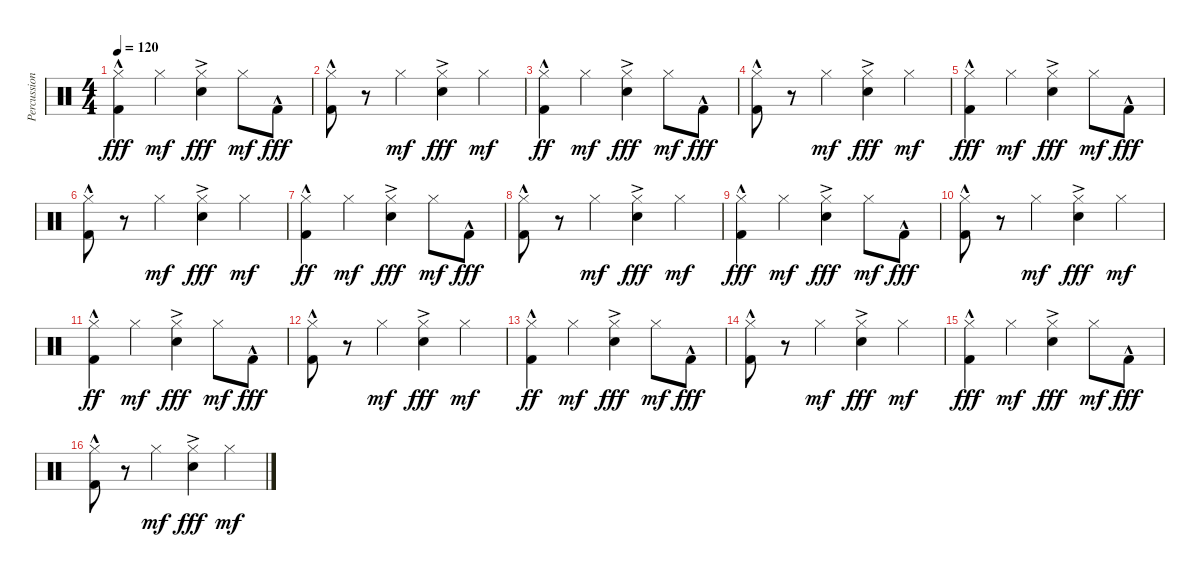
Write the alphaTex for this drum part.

\track ("Percussion" "Percussion") {instrument percussion}
\staff {score}
\articulation defaults
\ts (4 4)
\tempo 120
\clef neutral
\ks c
("Hi-Hat (closed)" "Kick (hit) 2"{hac}).4{dy fff} "Hi-Hat (closed)".4{dy mf} ("Hi-Hat (closed)" "Electric Snare (hit)"{ac}).4{dy fff} "Hi-Hat (closed)".8{dy mf} "Kick (hit) 2"{hac}.8{dy fff} |
("Hi-Hat (closed)" "Kick (hit) 2"{hac}).8 r.8 "Hi-Hat (closed)".4{dy mf} ("Hi-Hat (closed)" "Electric Snare (hit)"{ac}).4{dy fff} "Hi-Hat (closed)".4{dy mf} |
("Hi-Hat (closed)" "Kick (hit) 2"{hac}).4{dy ff} "Hi-Hat (closed)".4{dy mf} ("Hi-Hat (closed)" "Electric Snare (hit)"{ac}).4{dy fff} "Hi-Hat (closed)".8{dy mf} "Kick (hit) 2"{hac}.8{dy fff} |
("Hi-Hat (closed)" "Kick (hit) 2"{hac}).8 r.8 "Hi-Hat (closed)".4{dy mf} ("Hi-Hat (closed)" "Electric Snare (hit)"{ac}).4{dy fff} "Hi-Hat (closed)".4{dy mf} |
("Hi-Hat (closed)" "Kick (hit) 2"{hac}).4{dy fff} "Hi-Hat (closed)".4{dy mf} ("Hi-Hat (closed)" "Electric Snare (hit)"{ac}).4{dy fff} "Hi-Hat (closed)".8{dy mf} "Kick (hit) 2"{hac}.8{dy fff} |
("Hi-Hat (closed)" "Kick (hit) 2"{hac}).8 r.8 "Hi-Hat (closed)".4{dy mf} ("Hi-Hat (closed)" "Electric Snare (hit)"{ac}).4{dy fff} "Hi-Hat (closed)".4{dy mf} |
("Hi-Hat (closed)" "Kick (hit) 2"{hac}).4{dy ff} "Hi-Hat (closed)".4{dy mf} ("Hi-Hat (closed)" "Electric Snare (hit)"{ac}).4{dy fff} "Hi-Hat (closed)".8{dy mf} "Kick (hit) 2"{hac}.8{dy fff} |
("Hi-Hat (closed)" "Kick (hit) 2"{hac}).8 r.8 "Hi-Hat (closed)".4{dy mf} ("Hi-Hat (closed)" "Electric Snare (hit)"{ac}).4{dy fff} "Hi-Hat (closed)".4{dy mf} |
("Hi-Hat (closed)" "Kick (hit) 2"{hac}).4{dy fff} "Hi-Hat (closed)".4{dy mf} ("Hi-Hat (closed)" "Electric Snare (hit)"{ac}).4{dy fff} "Hi-Hat (closed)".8{dy mf} "Kick (hit) 2"{hac}.8{dy fff} |
("Hi-Hat (closed)" "Kick (hit) 2"{hac}).8 r.8 "Hi-Hat (closed)".4{dy mf} ("Hi-Hat (closed)" "Electric Snare (hit)"{ac}).4{dy fff} "Hi-Hat (closed)".4{dy mf} |
("Hi-Hat (closed)" "Kick (hit) 2"{hac}).4{dy ff} "Hi-Hat (closed)".4{dy mf} ("Hi-Hat (closed)" "Electric Snare (hit)"{ac}).4{dy fff} "Hi-Hat (closed)".8{dy mf} "Kick (hit) 2"{hac}.8{dy fff} |
("Hi-Hat (closed)" "Kick (hit) 2"{hac}).8 r.8 "Hi-Hat (closed)".4{dy mf} ("Hi-Hat (closed)" "Electric Snare (hit)"{ac}).4{dy fff} "Hi-Hat (closed)".4{dy mf} |
("Hi-Hat (closed)" "Kick (hit) 2"{hac}).4{dy ff} "Hi-Hat (closed)".4{dy mf} ("Hi-Hat (closed)" "Electric Snare (hit)"{ac}).4{dy fff} "Hi-Hat (closed)".8{dy mf} "Kick (hit) 2"{hac}.8{dy fff} |
("Hi-Hat (closed)" "Kick (hit) 2"{hac}).8 r.8 "Hi-Hat (closed)".4{dy mf} ("Hi-Hat (closed)" "Electric Snare (hit)"{ac}).4{dy fff} "Hi-Hat (closed)".4{dy mf} |
("Hi-Hat (closed)" "Kick (hit) 2"{hac}).4{dy fff} "Hi-Hat (closed)".4{dy mf} ("Hi-Hat (closed)" "Electric Snare (hit)"{ac}).4{dy fff} "Hi-Hat (closed)".8{dy mf} "Kick (hit) 2"{hac}.8{dy fff} |
("Hi-Hat (closed)" "Kick (hit) 2"{hac}).8 r.8 "Hi-Hat (closed)".4{dy mf} ("Hi-Hat (closed)" "Electric Snare (hit)"{ac}).4{dy fff} "Hi-Hat (closed)".4{dy mf}
